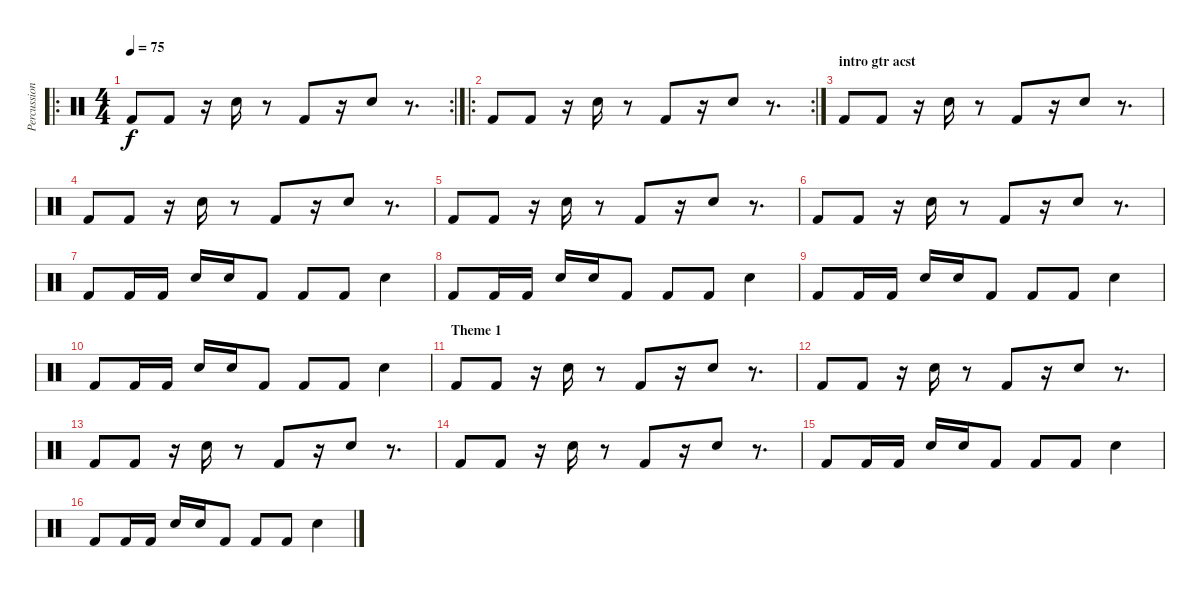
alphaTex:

\track ("Percussions" "Percussion") {instrument percussion}
\staff {score}
\articulation defaults
\ro
\rc 2
\ts (4 4)
\tempo 75
\clef neutral
\ks c "Kick (hit) 2".8{dy f} "Kick (hit) 2".8
r.16 "Electric Snare (hit)".16 r.8 "Kick (hit) 2".8 r.16 "Electric Snare (hit)".8 r.8{d} |
\ro
\rc 2 "Kick (hit) 2".8 "Kick (hit) 2".8
r.16 "Electric Snare (hit)".16 r.8 "Kick (hit) 2".8 r.16 "Electric Snare (hit)".8 r.8{d} |
\section ("" "intro gtr acst")
"Kick (hit) 2".8 "Kick (hit) 2".8 r.16 "Electric Snare (hit)".16 r.8 "Kick (hit) 2".8 r.16 "Electric Snare (hit)".8 r.8{d} |
"Kick (hit) 2".8 "Kick (hit) 2".8 r.16 "Electric Snare (hit)".16 r.8 "Kick (hit) 2".8 r.16 "Electric Snare (hit)".8 r.8{d} |
"Kick (hit) 2".8 "Kick (hit) 2".8 r.16 "Electric Snare (hit)".16 r.8 "Kick (hit) 2".8 r.16 "Electric Snare (hit)".8 r.8{d} |
"Kick (hit) 2".8 "Kick (hit) 2".8 r.16 "Electric Snare (hit)".16 r.8 "Kick (hit) 2".8 r.16 "Electric Snare (hit)".8 r.8{d} |
"Kick (hit) 2".8 "Kick (hit) 2".16 "Kick (hit) 2".16 "Electric Snare (hit)".16 "Electric Snare (hit)".16 "Kick (hit) 2".8 "Kick (hit) 2".8 "Kick (hit) 2".8 "Electric Snare (hit)".4 |
"Kick (hit) 2".8 "Kick (hit) 2".16 "Kick (hit) 2".16 "Electric Snare (hit)".16 "Electric Snare (hit)".16 "Kick (hit) 2".8 "Kick (hit) 2".8 "Kick (hit) 2".8 "Electric Snare (hit)".4 |
"Kick (hit) 2".8 "Kick (hit) 2".16 "Kick (hit) 2".16 "Electric Snare (hit)".16 "Electric Snare (hit)".16 "Kick (hit) 2".8 "Kick (hit) 2".8 "Kick (hit) 2".8 "Electric Snare (hit)".4 |
"Kick (hit) 2".8 "Kick (hit) 2".16 "Kick (hit) 2".16 "Electric Snare (hit)".16 "Electric Snare (hit)".16 "Kick (hit) 2".8 "Kick (hit) 2".8 "Kick (hit) 2".8 "Electric Snare (hit)".4 |
\section ("" "Theme 1")
"Kick (hit) 2".8 "Kick (hit) 2".8 r.16 "Electric Snare (hit)".16 r.8 "Kick (hit) 2".8 r.16 "Electric Snare (hit)".8 r.8{d} |
"Kick (hit) 2".8 "Kick (hit) 2".8 r.16 "Electric Snare (hit)".16 r.8 "Kick (hit) 2".8 r.16 "Electric Snare (hit)".8 r.8{d} |
"Kick (hit) 2".8 "Kick (hit) 2".8 r.16 "Electric Snare (hit)".16 r.8 "Kick (hit) 2".8 r.16 "Electric Snare (hit)".8 r.8{d} |
"Kick (hit) 2".8 "Kick (hit) 2".8 r.16 "Electric Snare (hit)".16 r.8 "Kick (hit) 2".8 r.16 "Electric Snare (hit)".8 r.8{d} |
"Kick (hit) 2".8 "Kick (hit) 2".16 "Kick (hit) 2".16 "Electric Snare (hit)".16 "Electric Snare (hit)".16 "Kick (hit) 2".8 "Kick (hit) 2".8 "Kick (hit) 2".8 "Electric Snare (hit)".4 |
"Kick (hit) 2".8 "Kick (hit) 2".16 "Kick (hit) 2".16 "Electric Snare (hit)".16 "Electric Snare (hit)".16 "Kick (hit) 2".8 "Kick (hit) 2".8 "Kick (hit) 2".8 "Electric Snare (hit)".4
